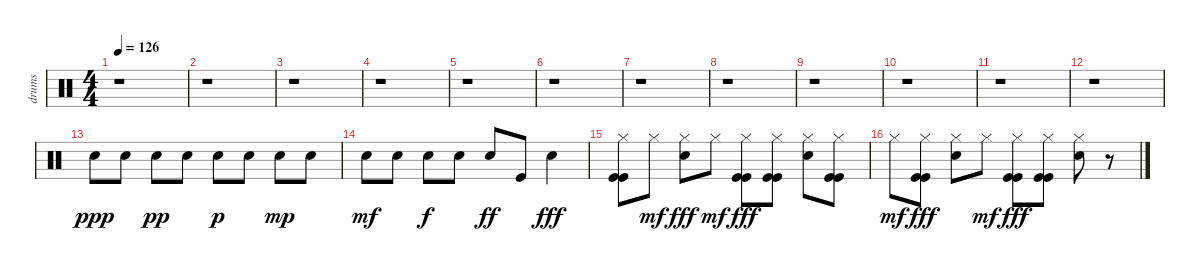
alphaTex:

\track ("drums" "drums") {instrument percussion}
\staff {score}
\articulation defaults
\ts (4 4)
\tempo 126
\clef neutral
\ks c
r.1{dy ppp} |
r.1 |
r.1 |
r.1 |
r.1 |
r.1 |
r.1 |
r.1 |
r.1 |
r.1 |
r.1 |
r.1 |
"Electric Snare (hit)".8 "Electric Snare (hit)".8 "Electric Snare (hit)".8{dy pp} "Electric Snare (hit)".8 "Electric Snare (hit)".8{dy p} "Electric Snare (hit)".8 "Electric Snare (hit)".8{dy mp} "Electric Snare (hit)".8 |
"Electric Snare (hit)".8{dy mf} "Electric Snare (hit)".8 "Electric Snare (hit)".8{dy f} "Electric Snare (hit)".8 "Electric Snare (hit)".8{dy ff} "Kick (hit)".8 "Electric Snare (hit)".4{dy fff} |
("Hi-Hat (closed)" "Kick (hit)" "Kick (hit)").8 "Hi-Hat (closed)".8{dy mf} ("Hi-Hat (closed)" "Electric Snare (hit)").8{dy fff} "Hi-Hat (closed)".8{dy mf} ("Hi-Hat (closed)" "Kick (hit)" "Kick (hit)").8{dy fff} ("Hi-Hat (closed)" "Kick (hit)" "Kick (hit)").8 ("Hi-Hat (closed)" "Electric Snare (hit)").8 ("Hi-Hat (closed)" "Kick (hit)" "Kick (hit)").8 |
"Hi-Hat (closed)".8{dy mf} ("Hi-Hat (closed)" "Kick (hit)" "Kick (hit)").8{dy fff} ("Hi-Hat (closed)" "Electric Snare (hit)").8 "Hi-Hat (closed)".8{dy mf} ("Hi-Hat (closed)" "Kick (hit)" "Kick (hit)").8{dy fff} ("Hi-Hat (closed)" "Kick (hit)" "Kick (hit)").8 ("Hi-Hat (closed)" "Electric Snare (hit)").8 r.8
